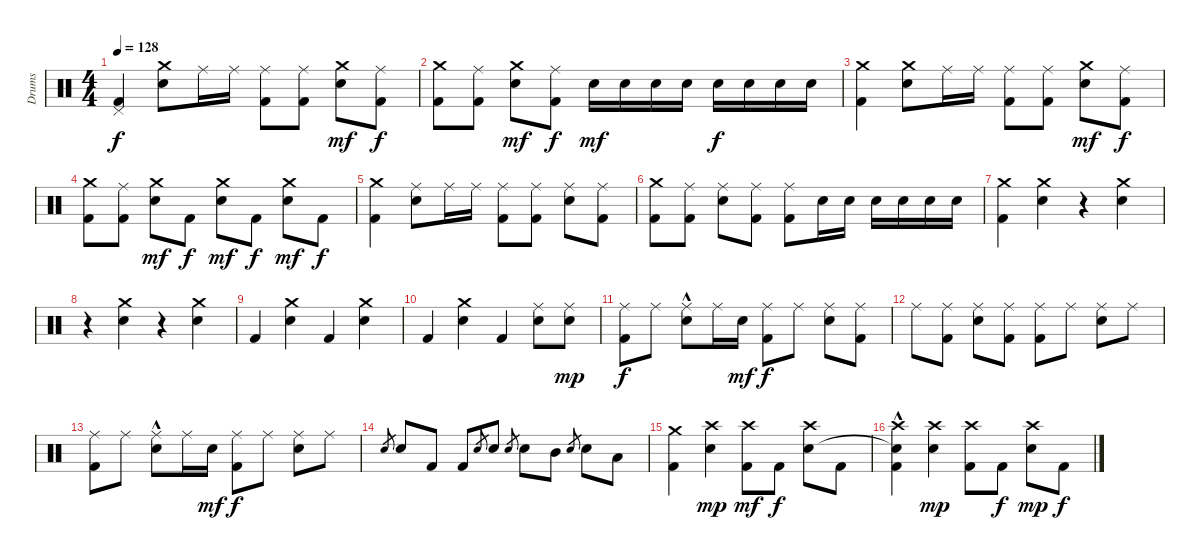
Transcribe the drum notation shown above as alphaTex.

\track ("Drums" "Drums") {instrument percussion}
\staff {score}
\articulation defaults
\ts (4 4)
\tempo 128
\clef neutral
\ks c
("Pedal Hi-Hat (hit)" "Kick (hit) 2").4{dy f} ("Crash medium (hit)" "Snare (hit) 2").8 "Ride (middle)".16 "Ride (middle)".16 ("Ride (middle)" "Kick (hit) 2").8 ("Ride (middle)" "Kick (hit) 2").8 ("Crash medium (hit)" "Snare (hit) 2").8{dy mf} ("Ride (middle)" "Kick (hit) 2").8{dy f} |
("Crash medium (hit)" "Kick (hit) 2").8 ("Ride (middle)" "Kick (hit) 2").8 ("Crash medium (hit)" "Snare (hit) 2").8{dy mf} ("Ride (middle)" "Kick (hit) 2").8{dy f} "Snare (hit) 2".16{dy mf} "Snare (hit) 2".16 "Snare (hit) 2".16 "Snare (hit) 2".16 "Snare (hit) 2".16{dy f} "Snare (hit) 2".16 "Snare (hit) 2".16 "Snare (hit) 2".16 |
("Crash medium (hit)" "Kick (hit) 2").4 ("Crash medium (hit)" "Snare (hit) 2").8 "Ride (middle)".16 "Ride (middle)".16 ("Ride (middle)" "Kick (hit) 2").8 ("Ride (middle)" "Kick (hit) 2").8 ("Crash medium (hit)" "Snare (hit) 2").8{dy mf} ("Ride (middle)" "Kick (hit) 2").8{dy f} |
("Crash medium (hit)" "Kick (hit) 2").8 ("Ride (middle)" "Kick (hit) 2").8 ("Crash medium (hit)" "Snare (hit) 2").8{dy mf} "Kick (hit) 2".8{dy f} ("Crash medium (hit)" "Snare (hit) 2").8{dy mf} "Kick (hit) 2".8{dy f} ("Crash medium (hit)" "Snare (hit) 2").8{dy mf} "Kick (hit) 2".8{dy f} |
("Crash medium (hit)" "Kick (hit) 2").4 ("Ride (middle)" "Snare (hit) 2").8 "Ride (middle)".16 "Ride (middle)".16 ("Ride (middle)" "Kick (hit) 2").8 ("Ride (middle)" "Kick (hit) 2").8 ("Ride (middle)" "Snare (hit) 2").8 ("Ride (middle)" "Kick (hit) 2").8 |
("Crash medium (hit)" "Kick (hit) 2").8 ("Ride (middle)" "Kick (hit) 2").8 ("Ride (middle)" "Snare (hit) 2").8 ("Ride (middle)" "Kick (hit) 2").8 ("Ride (middle)" "Kick (hit) 2").8 "Snare (hit) 2".16 "Snare (hit) 2".16 "Snare (hit) 2".16 "Snare (hit) 2".16 "Snare (hit) 2".16 "Snare (hit) 2".16 |
("Crash medium (hit)" "Kick (hit) 2").4 ("Crash medium (hit)" "Snare (hit) 2").4 r.4 ("Crash medium (hit)" "Snare (hit) 2").4 |
r.4 ("Crash medium (hit)" "Snare (hit) 2").4 r.4 ("Crash medium (hit)" "Snare (hit) 2").4 |
"Kick (hit) 2".4 ("Crash medium (hit)" "Snare (hit) 2").4 "Kick (hit) 2".4 ("Crash medium (hit)" "Snare (hit) 2").4 |
"Kick (hit) 2".4 ("Crash medium (hit)" "Snare (hit) 2").4 "Kick (hit) 2".4 ("Ride (middle)" "Snare (hit) 2").8 ("Ride (middle)" "Snare (hit) 2").8{dy mp} |
("Ride (middle)" "Kick (hit) 2").8{dy f} "Ride (middle)".8 ("Ride (middle)" "Snare (hit) 2"{hac}).8 "Ride (middle)".16 "Snare (hit) 2".16{dy mf} ("Ride (middle)" "Kick (hit) 2").8{dy f} "Ride (middle)".8 ("Ride (middle)" "Snare (hit) 2").8 ("Ride (middle)" "Kick (hit) 2").8 |
"Ride (middle)".8 ("Ride (middle)" "Kick (hit) 2").8 ("Ride (middle)" "Snare (hit) 2").8 ("Ride (middle)" "Kick (hit) 2").8 ("Ride (middle)" "Kick (hit) 2").8 "Ride (middle)".8 ("Ride (middle)" "Snare (hit) 2").8 "Ride (middle)".8 |
("Ride (middle)" "Kick (hit) 2").8 "Ride (middle)".8 ("Ride (middle)" "Snare (hit) 2"{hac}).8 "Ride (middle)".16 "Snare (hit) 2".16{dy mf} ("Ride (middle)" "Kick (hit) 2").8{dy f} "Ride (middle)".8 ("Ride (middle)" "Snare (hit) 2").8 "Ride (middle)".8 |
"Electric Snare (hit)".8{gr} "Snare (hit) 2".8 "Kick (hit) 2".8 "Kick (hit) 2".8 "Electric Snare (hit)".8{gr} "Snare (hit) 2".8 "Electric Snare (hit)".8{gr} "Snare (hit) 2".8 "Mid Tom (hit)".8 "Electric Snare (hit)".8{gr} "Snare (hit) 2".8 "Low Tom (hit)".8 |
("Crash medium (hit)" "Kick (hit) 2").4 ("Crash high (hit)" "Snare (hit) 2").4{dy mp} ("Crash high (hit)" "Kick (hit) 2").8{dy mf} "Kick (hit) 2".8{dy f} ("Crash high (hit)" "Snare (hit) 2").8 "Kick (hit) 2".8 |
("Crash high (hit)" "Snare (hit)"{hac t} "Kick (hit) 2").4 ("Crash high (hit)" "Snare (hit) 2").4{dy mp} ("Crash high (hit)" "Kick (hit) 2").8 "Kick (hit) 2".8{dy f} ("Crash high (hit)" "Snare (hit) 2").8{dy mp} "Kick (hit) 2".8{dy f}
